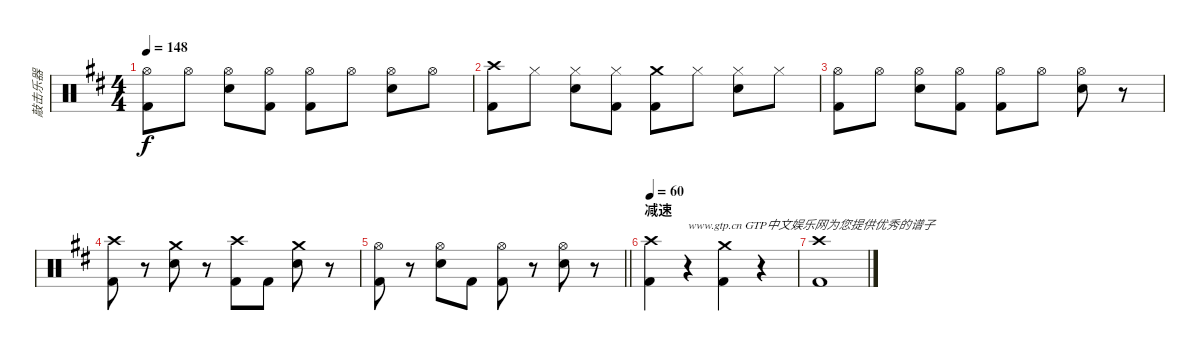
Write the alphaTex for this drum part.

\track ("敲击乐器" "敲击乐器") {instrument percussion}
\staff {score}
\articulation defaults
\ts (4 4)
\tempo 148
\clef neutral
\ks d
("Hi-Hat (open)" "Kick (hit) 2").8{dy f} "Hi-Hat (open)".8 ("Hi-Hat (open)" "Electric Snare (hit)").8 ("Hi-Hat (open)" "Kick (hit) 2").8 ("Hi-Hat (open)" "Kick (hit) 2").8 "Hi-Hat (open)".8 ("Hi-Hat (open)" "Electric Snare (hit)").8 "Hi-Hat (open)".8 |
("Crash high (hit)" "Kick (hit) 2").8 "Hi-Hat (closed)".8 ("Hi-Hat (closed)" "Electric Snare (hit)").8 ("Hi-Hat (closed)" "Kick (hit) 2").8 ("Crash medium (hit)" "Kick (hit) 2").8 "Hi-Hat (closed)".8 ("Hi-Hat (closed)" "Electric Snare (hit)").8 "Hi-Hat (closed)".8 |
("Hi-Hat (open)" "Kick (hit) 2").8 "Hi-Hat (open)".8 ("Hi-Hat (open)" "Electric Snare (hit)").8 ("Hi-Hat (open)" "Kick (hit) 2").8 ("Hi-Hat (open)" "Kick (hit) 2").8 "Hi-Hat (open)".8 ("Hi-Hat (open)" "Electric Snare (hit)").8 r.8 |
("Crash high (hit)" "Kick (hit) 2").8 r.8 ("Crash medium (hit)" "Electric Snare (hit)").8 r.8 ("Crash high (hit)" "Kick (hit) 2").8 "Kick (hit) 2".8 ("Crash medium (hit)" "Electric Snare (hit)").8 r.8 |
\barLineRight lightlight
("Hi-Hat (open)" "Kick (hit) 2").8 r.8 ("Hi-Hat (open)" "Electric Snare (hit)").8 "Kick (hit) 2".8 ("Hi-Hat (open)" "Kick (hit) 2").8 r.8 ("Hi-Hat (open)" "Electric Snare (hit)").8 r.8 |
\section ("" "减速")
\tempo 60
("Crash high (hit)" "Kick (hit) 2").4 r.4{txt "www.gtp.cn GTP中文娱乐网为您提供优秀的谱子"} ("Crash medium (hit)" "Kick (hit) 2").4 r.4 |
("Crash high (hit)" "Kick (hit) 2").1
